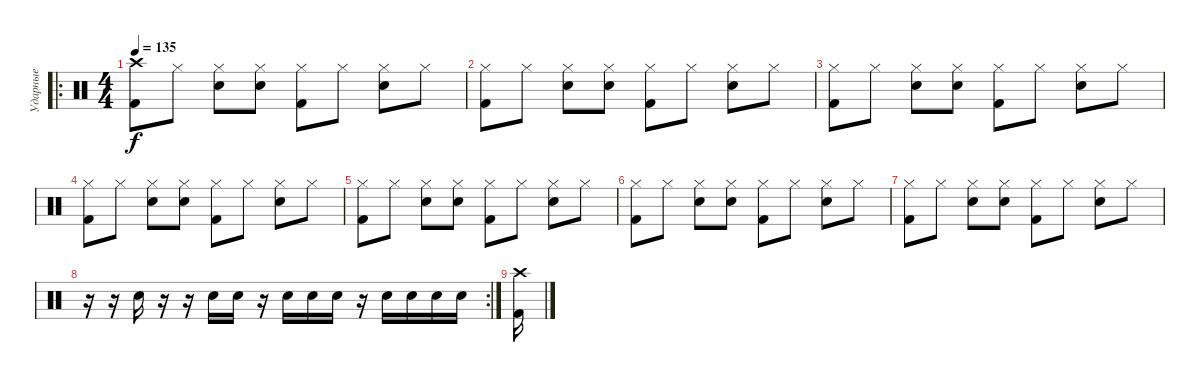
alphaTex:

\track ("Ударные" "Ударные") {instrument percussion}
\staff {score}
\articulation defaults
\ro
\ts (4 4)
\tempo 135
\clef neutral
\ks c
("Crash high (hit)" "Kick (hit) 2").8{dy f} "Hi-Hat (closed)".8 ("Hi-Hat (closed)" "Snare (hit) 2").8 ("Hi-Hat (closed)" "Snare (hit) 2").8 ("Hi-Hat (closed)" "Kick (hit) 2").8 "Hi-Hat (closed)".8 ("Hi-Hat (closed)" "Snare (hit) 2").8 "Hi-Hat (closed)".8 |
("Hi-Hat (closed)" "Kick (hit) 2").8 "Hi-Hat (closed)".8 ("Hi-Hat (closed)" "Snare (hit) 2").8 ("Hi-Hat (closed)" "Snare (hit) 2").8 ("Hi-Hat (closed)" "Kick (hit) 2").8 "Hi-Hat (closed)".8 ("Hi-Hat (closed)" "Snare (hit) 2").8 "Hi-Hat (closed)".8 |
("Hi-Hat (closed)" "Kick (hit) 2").8 "Hi-Hat (closed)".8 ("Hi-Hat (closed)" "Snare (hit) 2").8 ("Hi-Hat (closed)" "Snare (hit) 2").8 ("Hi-Hat (closed)" "Kick (hit) 2").8 "Hi-Hat (closed)".8 ("Hi-Hat (closed)" "Snare (hit) 2").8 "Hi-Hat (closed)".8 |
("Hi-Hat (closed)" "Kick (hit) 2").8 "Hi-Hat (closed)".8 ("Hi-Hat (closed)" "Snare (hit) 2").8 ("Hi-Hat (closed)" "Snare (hit) 2").8 ("Hi-Hat (closed)" "Kick (hit) 2").8 "Hi-Hat (closed)".8 ("Hi-Hat (closed)" "Snare (hit) 2").8 "Hi-Hat (closed)".8 |
("Hi-Hat (closed)" "Kick (hit) 2").8 "Hi-Hat (closed)".8 ("Hi-Hat (closed)" "Snare (hit) 2").8 ("Hi-Hat (closed)" "Snare (hit) 2").8 ("Hi-Hat (closed)" "Kick (hit) 2").8 "Hi-Hat (closed)".8 ("Hi-Hat (closed)" "Snare (hit) 2").8 "Hi-Hat (closed)".8 |
("Hi-Hat (closed)" "Kick (hit) 2").8 "Hi-Hat (closed)".8 ("Hi-Hat (closed)" "Snare (hit) 2").8 ("Hi-Hat (closed)" "Snare (hit) 2").8 ("Hi-Hat (closed)" "Kick (hit) 2").8 "Hi-Hat (closed)".8 ("Hi-Hat (closed)" "Snare (hit) 2").8 "Hi-Hat (closed)".8 |
("Hi-Hat (closed)" "Kick (hit) 2").8 "Hi-Hat (closed)".8 ("Hi-Hat (closed)" "Snare (hit) 2").8 ("Hi-Hat (closed)" "Snare (hit) 2").8 ("Hi-Hat (closed)" "Kick (hit) 2").8 "Hi-Hat (closed)".8 ("Hi-Hat (closed)" "Snare (hit) 2").8 "Hi-Hat (closed)".8 |
\rc 2
r.16 r.16 "Snare (hit) 2".16 r.16 r.16 "Snare (hit) 2".16 "Snare (hit) 2".16 r.16 "Snare (hit) 2".16 "Snare (hit) 2".16 "Snare (hit) 2".16 r.16 "Snare (hit) 2".16 "Snare (hit) 2".16 "Snare (hit) 2".16 "Snare (hit) 2".16 |
("Crash high (hit)" "Kick (hit) 2").16
